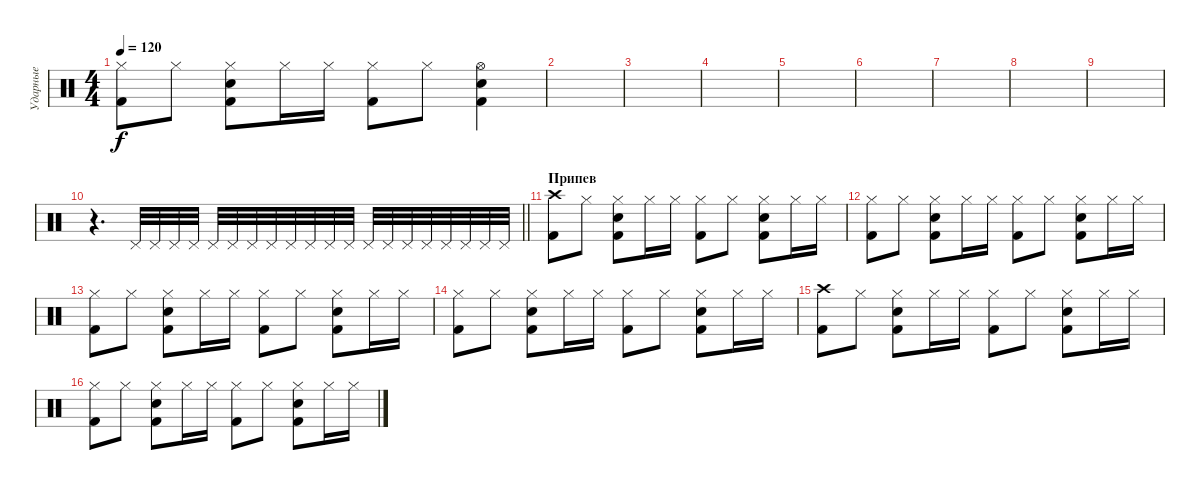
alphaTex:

\track ("Ударные" "Ударные") {instrument percussion}
\staff {score}
\articulation defaults
\ts (4 4)
\tempo 120
\clef neutral
\ks c
("Hi-Hat (closed)" "Kick (hit) 2").8{dy f} "Hi-Hat (closed)".8 ("Hi-Hat (closed)" "Kick (hit) 2" "Electric Snare (hit)").8 "Hi-Hat (closed)".16 "Hi-Hat (closed)".16 ("Hi-Hat (closed)" "Kick (hit) 2").8 "Hi-Hat (closed)".8 ("Hi-Hat (open)" "Kick (hit) 2" "Electric Snare (hit)").4 |
|
|
|
|
|
|
|
|
\barLineRight lightlight
r.4{d} "Pedal Hi-Hat (hit)".32{volume 4} "Pedal Hi-Hat (hit)".32{volume 4} "Pedal Hi-Hat (hit)".32 "Pedal Hi-Hat (hit)".32 "Pedal Hi-Hat (hit)".32{volume 5} "Pedal Hi-Hat (hit)".32 "Pedal Hi-Hat (hit)".32{volume 6} "Pedal Hi-Hat (hit)".32{volume 6} "Pedal Hi-Hat (hit)".32 "Pedal Hi-Hat (hit)".32{volume 7} "Pedal Hi-Hat (hit)".32{volume 8} "Pedal Hi-Hat (hit)".32{volume 9} "Pedal Hi-Hat (hit)".32{volume 10} "Pedal Hi-Hat (hit)".32{volume 10} "Pedal Hi-Hat (hit)".32{volume 11} "Pedal Hi-Hat (hit)".32 "Pedal Hi-Hat (hit)".32{volume 12} "Pedal Hi-Hat (hit)".32{volume 13} "Pedal Hi-Hat (hit)".32 "Pedal Hi-Hat (hit)".32 |
\section ("" "Припев")
("Crash high (hit)" "Kick (hit) 2").8 "Hi-Hat (closed)".8 ("Hi-Hat (closed)" "Kick (hit) 2" "Electric Snare (hit)").8 "Hi-Hat (closed)".16 "Hi-Hat (closed)".16 ("Hi-Hat (closed)" "Kick (hit) 2").8 "Hi-Hat (closed)".8 ("Hi-Hat (closed)" "Kick (hit) 2" "Electric Snare (hit)").8 "Hi-Hat (closed)".16 "Hi-Hat (closed)".16 |
("Hi-Hat (closed)" "Kick (hit) 2").8 "Hi-Hat (closed)".8 ("Hi-Hat (closed)" "Kick (hit) 2" "Electric Snare (hit)").8 "Hi-Hat (closed)".16 "Hi-Hat (closed)".16 ("Hi-Hat (closed)" "Kick (hit) 2").8 "Hi-Hat (closed)".8 ("Hi-Hat (closed)" "Kick (hit) 2" "Electric Snare (hit)").8 "Hi-Hat (closed)".16 "Hi-Hat (closed)".16 |
("Hi-Hat (closed)" "Kick (hit) 2").8 "Hi-Hat (closed)".8 ("Hi-Hat (closed)" "Kick (hit) 2" "Electric Snare (hit)").8 "Hi-Hat (closed)".16 "Hi-Hat (closed)".16 ("Hi-Hat (closed)" "Kick (hit) 2").8 "Hi-Hat (closed)".8 ("Hi-Hat (closed)" "Kick (hit) 2" "Electric Snare (hit)").8 "Hi-Hat (closed)".16 "Hi-Hat (closed)".16 |
("Hi-Hat (closed)" "Kick (hit) 2").8 "Hi-Hat (closed)".8 ("Hi-Hat (closed)" "Kick (hit) 2" "Electric Snare (hit)").8 "Hi-Hat (closed)".16 "Hi-Hat (closed)".16 ("Hi-Hat (closed)" "Kick (hit) 2").8 "Hi-Hat (closed)".8 ("Hi-Hat (closed)" "Kick (hit) 2" "Electric Snare (hit)").8 "Hi-Hat (closed)".16 "Hi-Hat (closed)".16 |
("Crash high (hit)" "Kick (hit) 2").8 "Hi-Hat (closed)".8 ("Hi-Hat (closed)" "Kick (hit) 2" "Electric Snare (hit)").8 "Hi-Hat (closed)".16 "Hi-Hat (closed)".16 ("Hi-Hat (closed)" "Kick (hit) 2").8 "Hi-Hat (closed)".8 ("Hi-Hat (closed)" "Kick (hit) 2" "Electric Snare (hit)").8 "Hi-Hat (closed)".16 "Hi-Hat (closed)".16 |
("Hi-Hat (closed)" "Kick (hit) 2").8 "Hi-Hat (closed)".8 ("Hi-Hat (closed)" "Kick (hit) 2" "Electric Snare (hit)").8 "Hi-Hat (closed)".16 "Hi-Hat (closed)".16 ("Hi-Hat (closed)" "Kick (hit) 2").8 "Hi-Hat (closed)".8 ("Hi-Hat (closed)" "Kick (hit) 2" "Electric Snare (hit)").8 "Hi-Hat (closed)".16 "Hi-Hat (closed)".16
